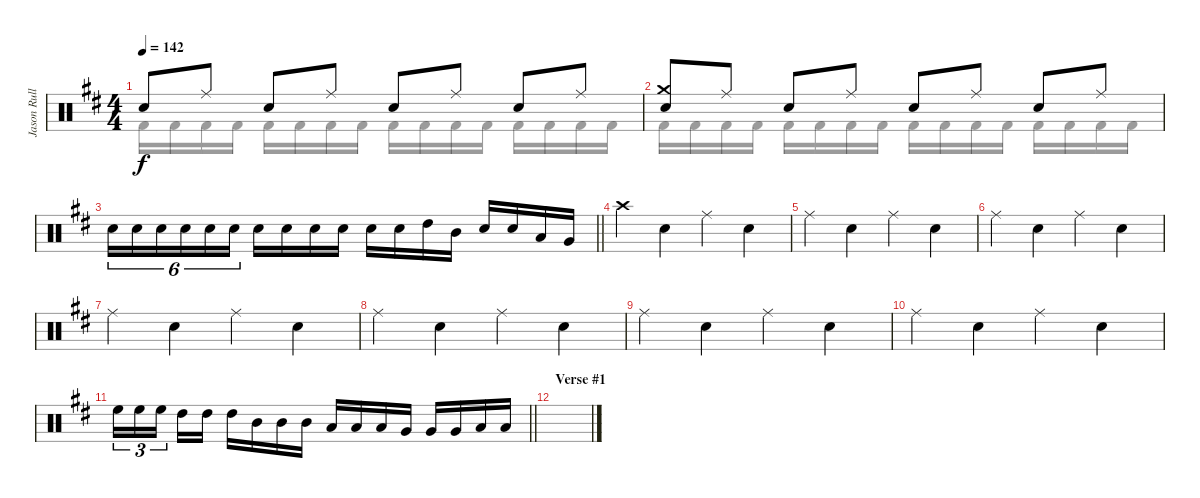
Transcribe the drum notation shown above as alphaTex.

\track ("Jason Rullo (drums)" "Jason Rull") {instrument percussion}
\staff {score}
\articulation defaults
\voice
\ts (4 4)
\tempo 142
\clef neutral
\ks bminor "Electric Snare (hit)".8{dy f} "Ride (middle)".8 "Electric Snare (hit)".8 "Ride (middle)".8 "Electric Snare (hit)".8 "Ride (middle)".8 "Electric Snare (hit)".8 "Ride (middle)".8
|
("Crash medium (hit)" "Electric Snare (hit)").8 "Ride (middle)".8 "Electric Snare (hit)".8 "Ride (middle)".8 "Electric Snare (hit)".8 "Ride (middle)".8 "Electric Snare (hit)".8 "Ride (middle)".8 |
\barLineRight lightlight "Electric Snare (hit)".16{tu (6 4)} "Electric Snare (hit)".16{tu (6 4)} "Electric Snare (hit)".16{tu (6 4)} "Electric Snare (hit)".16{tu (6 4)} "Electric Snare (hit)".16{tu (6 4)} "Electric Snare (hit)".16{tu (6 4)} "Electric Snare (hit)".16 "Electric Snare (hit)".16 "Electric Snare (hit)".16 "Electric Snare (hit)".16 "Electric Snare (hit)".16 "Electric Snare (hit)".16 "High Tom (hit)".16 "Mid Tom (hit)".16 "Electric Snare (hit)".16 "Electric Snare (hit)".16 "Low Tom (hit)".16 "Very Low Tom (hit)".16
|
"Crash high (hit)".4 "Electric Snare (hit)".4 "Ride (middle)".4 "Electric Snare (hit)".4 |
"Ride (middle)".4 "Electric Snare (hit)".4 "Ride (middle)".4 "Electric Snare (hit)".4 |
"Ride (middle)".4 "Electric Snare (hit)".4 "Ride (middle)".4 "Electric Snare (hit)".4 |
"Ride (middle)".4 "Electric Snare (hit)".4 "Ride (middle)".4 "Electric Snare (hit)".4 |
"Ride (middle)".4 "Electric Snare (hit)".4 "Ride (middle)".4 "Electric Snare (hit)".4 |
"Ride (middle)".4 "Electric Snare (hit)".4 "Ride (middle)".4 "Electric Snare (hit)".4 |
"Ride (middle)".4 "Electric Snare (hit)".4 "Ride (middle)".4 "Electric Snare (hit)".4 |
\barLineRight lightlight "High Floor Tom (hit)".16{tu (3 2)} "High Floor Tom (hit)".16{tu (3 2)} "High Floor Tom (hit)".16{tu (3 2) beam splitsecondary} "High Tom (hit)".16 "High Tom (hit)".16 "High Tom (hit)".16 "Mid Tom (hit)".16 "Mid Tom (hit)".16 "Mid Tom (hit)".16 "Low Tom (hit)".16 "Low Tom (hit)".16 "Low Tom (hit)".16 "Very Low Tom (hit)".16 "Very Low Tom (hit)".16 "Very Low Tom (hit)".16 "Low Floor Tom (hit)".16 "Low Floor Tom (hit)".16
|
\section ("" "Verse #1")
|
|
|
|
\voice
\clef neutral
\ottava regular
\simile none
\ks bminor "Kick (hit) 2".16{dy f} "Kick (hit) 2".16 "Kick (hit) 2".16 "Kick (hit) 2".16 "Kick (hit) 2".16 "Kick (hit) 2".16 "Kick (hit) 2".16 "Kick (hit) 2".16 "Kick (hit) 2".16 "Kick (hit) 2".16 "Kick (hit) 2".16 "Kick (hit) 2".16 "Kick (hit) 2".16 "Kick (hit) 2".16 "Kick (hit) 2".16 "Kick (hit) 2".16
|
"Kick (hit) 2".16 "Kick (hit) 2".16 "Kick (hit) 2".16 "Kick (hit) 2".16 "Kick (hit) 2".16 "Kick (hit) 2".16 "Kick (hit) 2".16 "Kick (hit) 2".16 "Kick (hit) 2".16 "Kick (hit) 2".16 "Kick (hit) 2".16 "Kick (hit) 2".16 "Kick (hit) 2".16 "Kick (hit) 2".16 "Kick (hit) 2".16 "Kick (hit) 2".16 |
\barLineRight lightlight
|
|
|
|
|
|
|
|
\barLineRight lightlight
|
|
|
|
|
